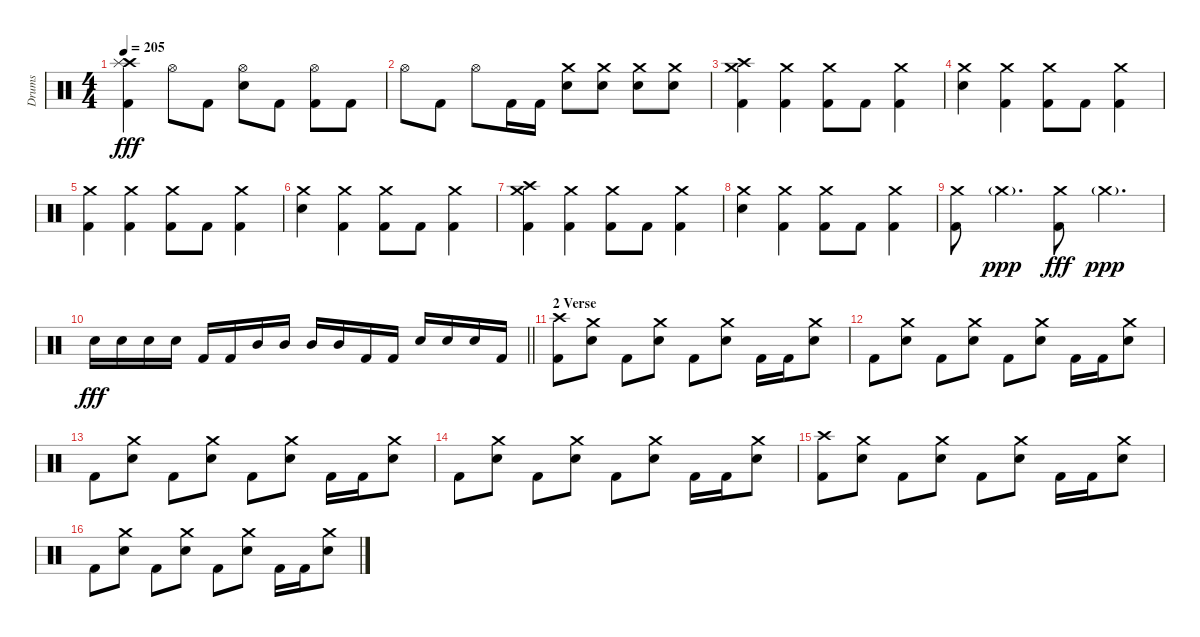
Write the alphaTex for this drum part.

\track ("Drums" "Drums") {instrument percussion}
\staff {score}
\articulation defaults
\ts (4 4)
\tempo 205
\clef neutral
\ks c
("Crash high (hit)" "Splash (hit)" "Kick (hit) 2").4{dy fff} "Hi-Hat (open)".8 "Kick (hit) 2".8 ("Hi-Hat (open)" "Electric Snare (hit)").8 "Kick (hit) 2".8 ("Hi-Hat (open)" "Kick (hit) 2").8 "Kick (hit) 2".8 |
"Hi-Hat (open)".8 "Kick (hit) 2".8 "Hi-Hat (open)".8 "Kick (hit) 2".16 "Kick (hit) 2".16 ("Crash medium (hit)" "Electric Snare (hit)").8 ("Crash medium (hit)" "Electric Snare (hit)").8 ("Crash medium (hit)" "Electric Snare (hit)").8 ("Crash medium (hit)" "Electric Snare (hit)").8 |
("Crash medium (hit)" "Crash high (hit)" "Kick (hit) 2").4 ("Crash medium (hit)" "Kick (hit) 2").4 ("Crash medium (hit)" "Kick (hit) 2").8 "Kick (hit) 2".8 ("Crash medium (hit)" "Kick (hit) 2").4 |
("Crash medium (hit)" "Electric Snare (hit)").4 ("Crash medium (hit)" "Kick (hit) 2").4 ("Crash medium (hit)" "Kick (hit) 2").8 "Kick (hit) 2".8 ("Crash medium (hit)" "Kick (hit) 2").4 |
("Crash medium (hit)" "Kick (hit) 2").4 ("Crash medium (hit)" "Kick (hit) 2").4 ("Crash medium (hit)" "Kick (hit) 2").8 "Kick (hit) 2".8 ("Crash medium (hit)" "Kick (hit) 2").4 |
("Crash medium (hit)" "Electric Snare (hit)").4 ("Crash medium (hit)" "Kick (hit) 2").4 ("Crash medium (hit)" "Kick (hit) 2").8 "Kick (hit) 2".8 ("Crash medium (hit)" "Kick (hit) 2").4 |
("Crash medium (hit)" "Crash high (hit)" "Kick (hit) 2").4 ("Crash medium (hit)" "Kick (hit) 2").4 ("Crash medium (hit)" "Kick (hit) 2").8 "Kick (hit) 2".8 ("Crash medium (hit)" "Kick (hit) 2").4 |
("Crash medium (hit)" "Electric Snare (hit)").4 ("Crash medium (hit)" "Kick (hit) 2").4 ("Crash medium (hit)" "Kick (hit) 2").8 "Kick (hit) 2".8 ("Crash medium (hit)" "Kick (hit) 2").4 |
("Crash medium (hit)" "Kick (hit) 2").8 "Crash medium (hit)"{g}.4{d dy ppp} ("Crash medium (hit)" "Kick (hit) 2").8{dy fff} "Crash medium (hit)"{g}.4{d dy ppp} |
\barLineRight lightlight "Electric Snare (hit)".16{dy fff} "Electric Snare (hit)".16 "Electric Snare (hit)".16 "Electric Snare (hit)".16 "Kick (hit) 2".16 "Kick (hit) 2".16 "Mid Tom (hit)".16 "Mid Tom (hit)".16 "Mid Tom (hit)".16 "Mid Tom (hit)".16 "Kick (hit) 2".16 "Kick (hit) 2".16 "Electric Snare (hit)".16 "Electric Snare (hit)".16 "Electric Snare (hit)".16 "Kick (hit) 2".16
|
\section ("" "2 Verse")
("Crash high (hit)" "Kick (hit) 2").8 ("Crash medium (hit)" "Electric Snare (hit)").8 "Kick (hit) 2".8 ("Crash medium (hit)" "Electric Snare (hit)").8 "Kick (hit) 2".8 ("Crash medium (hit)" "Electric Snare (hit)").8 "Kick (hit) 2".16 "Kick (hit) 2".16 ("Crash medium (hit)" "Electric Snare (hit)").8 |
"Kick (hit) 2".8 ("Crash medium (hit)" "Electric Snare (hit)").8 "Kick (hit) 2".8 ("Crash medium (hit)" "Electric Snare (hit)").8 "Kick (hit) 2".8 ("Crash medium (hit)" "Electric Snare (hit)").8 "Kick (hit) 2".16 "Kick (hit) 2".16 ("Crash medium (hit)" "Electric Snare (hit)").8 |
"Kick (hit) 2".8 ("Crash medium (hit)" "Electric Snare (hit)").8 "Kick (hit) 2".8 ("Crash medium (hit)" "Electric Snare (hit)").8 "Kick (hit) 2".8 ("Crash medium (hit)" "Electric Snare (hit)").8 "Kick (hit) 2".16 "Kick (hit) 2".16 ("Crash medium (hit)" "Electric Snare (hit)").8 |
"Kick (hit) 2".8 ("Crash medium (hit)" "Electric Snare (hit)").8 "Kick (hit) 2".8 ("Crash medium (hit)" "Electric Snare (hit)").8 "Kick (hit) 2".8 ("Crash medium (hit)" "Electric Snare (hit)").8 "Kick (hit) 2".16 "Kick (hit) 2".16 ("Crash medium (hit)" "Electric Snare (hit)").8 |
("Crash high (hit)" "Kick (hit) 2").8 ("Crash medium (hit)" "Electric Snare (hit)").8 "Kick (hit) 2".8 ("Crash medium (hit)" "Electric Snare (hit)").8 "Kick (hit) 2".8 ("Crash medium (hit)" "Electric Snare (hit)").8 "Kick (hit) 2".16 "Kick (hit) 2".16 ("Crash medium (hit)" "Electric Snare (hit)").8 |
"Kick (hit) 2".8 ("Crash medium (hit)" "Electric Snare (hit)").8 "Kick (hit) 2".8 ("Crash medium (hit)" "Electric Snare (hit)").8 "Kick (hit) 2".8 ("Crash medium (hit)" "Electric Snare (hit)").8 "Kick (hit) 2".16 "Kick (hit) 2".16 ("Crash medium (hit)" "Electric Snare (hit)").8
